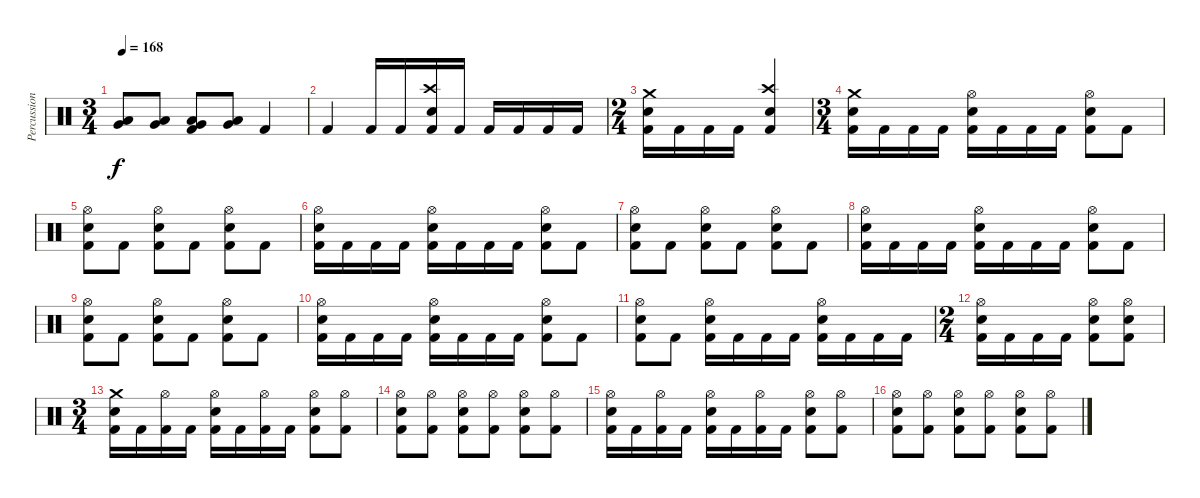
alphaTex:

\track ("Percussions" "Percussion") {instrument percussion}
\staff {score}
\articulation defaults
\ts (3 4)
\tempo 168
\clef neutral
\ks c
("Low Tom (hit)" "Very Low Tom (hit)").8{dy f} ("Low Tom (hit)" "Very Low Tom (hit)").8 ("Low Tom (hit)" "Very Low Tom (hit)" "Kick (hit) 2").8 ("Low Tom (hit)" "Very Low Tom (hit)").8 "Kick (hit) 2".4 |
"Kick (hit) 2".4 "Kick (hit) 2".16 "Kick (hit) 2".16 ("Crash high (hit)" "Snare (hit) 2" "Kick (hit) 2").16 "Kick (hit) 2".16 "Kick (hit) 2".16 "Kick (hit) 2".16 "Kick (hit) 2".16 "Kick (hit) 2".16 |
\ts (2 4)
("Crash medium (hit)" "Snare (hit) 2" "Kick (hit) 2").16 "Kick (hit) 2".16 "Kick (hit) 2".16 "Kick (hit) 2".16 ("Crash high (hit)" "Snare (hit) 2" "Kick (hit) 2").4 |
\ts (3 4)
("Crash medium (hit)" "Snare (hit) 2" "Kick (hit) 2").16 "Kick (hit) 2".16 "Kick (hit) 2".16 "Kick (hit) 2".16 ("Hi-Hat (open)" "Snare (hit) 2" "Kick (hit) 2").16 "Kick (hit) 2".16 "Kick (hit) 2".16 "Kick (hit) 2".16 ("Hi-Hat (open)" "Snare (hit) 2" "Kick (hit) 2").8 "Kick (hit) 2".8 |
("Hi-Hat (open)" "Snare (hit) 2" "Kick (hit) 2").8 "Kick (hit) 2".8 ("Hi-Hat (open)" "Snare (hit) 2" "Kick (hit) 2").8 "Kick (hit) 2".8 ("Hi-Hat (open)" "Snare (hit) 2" "Kick (hit) 2").8 "Kick (hit) 2".8 |
("Hi-Hat (open)" "Snare (hit) 2" "Kick (hit) 2").16 "Kick (hit) 2".16 "Kick (hit) 2".16 "Kick (hit) 2".16 ("Hi-Hat (open)" "Snare (hit) 2" "Kick (hit) 2").16 "Kick (hit) 2".16 "Kick (hit) 2".16 "Kick (hit) 2".16 ("Hi-Hat (open)" "Snare (hit) 2" "Kick (hit) 2").8 "Kick (hit) 2".8 |
("Hi-Hat (open)" "Snare (hit) 2" "Kick (hit) 2").8 "Kick (hit) 2".8 ("Hi-Hat (open)" "Snare (hit) 2" "Kick (hit) 2").8 "Kick (hit) 2".8 ("Hi-Hat (open)" "Snare (hit) 2" "Kick (hit) 2").8 "Kick (hit) 2".8 |
("Hi-Hat (open)" "Snare (hit) 2" "Kick (hit) 2").16 "Kick (hit) 2".16 "Kick (hit) 2".16 "Kick (hit) 2".16 ("Hi-Hat (open)" "Snare (hit) 2" "Kick (hit) 2").16 "Kick (hit) 2".16 "Kick (hit) 2".16 "Kick (hit) 2".16 ("Hi-Hat (open)" "Snare (hit) 2" "Kick (hit) 2").8 "Kick (hit) 2".8 |
("Hi-Hat (open)" "Snare (hit) 2" "Kick (hit) 2").8 "Kick (hit) 2".8 ("Hi-Hat (open)" "Snare (hit) 2" "Kick (hit) 2").8 "Kick (hit) 2".8 ("Hi-Hat (open)" "Snare (hit) 2" "Kick (hit) 2").8 "Kick (hit) 2".8 |
("Hi-Hat (open)" "Snare (hit) 2" "Kick (hit) 2").16 "Kick (hit) 2".16 "Kick (hit) 2".16 "Kick (hit) 2".16 ("Hi-Hat (open)" "Snare (hit) 2" "Kick (hit) 2").16 "Kick (hit) 2".16 "Kick (hit) 2".16 "Kick (hit) 2".16 ("Hi-Hat (open)" "Snare (hit) 2" "Kick (hit) 2").8 "Kick (hit) 2".8 |
("Hi-Hat (open)" "Snare (hit) 2" "Kick (hit) 2").8 "Kick (hit) 2".8 ("Hi-Hat (open)" "Snare (hit) 2" "Kick (hit) 2").16 "Kick (hit) 2".16 "Kick (hit) 2".16 "Kick (hit) 2".16 ("Hi-Hat (open)" "Snare (hit) 2" "Kick (hit) 2").16 "Kick (hit) 2".16 "Kick (hit) 2".16 "Kick (hit) 2".16 |
\ts (2 4)
("Hi-Hat (open)" "Snare (hit) 2" "Kick (hit) 2").16 "Kick (hit) 2".16 "Kick (hit) 2".16 "Kick (hit) 2".16 ("Hi-Hat (open)" "Snare (hit) 2" "Kick (hit) 2").8 ("Hi-Hat (open)" "Snare (hit) 2" "Kick (hit) 2").8 |
\ts (3 4)
("Crash medium (hit)" "Snare (hit) 2" "Kick (hit) 2").16 "Kick (hit) 2".16 ("Hi-Hat (open)" "Kick (hit) 2").16 "Kick (hit) 2".16 ("Hi-Hat (open)" "Snare (hit) 2" "Kick (hit) 2").16 "Kick (hit) 2".16 ("Hi-Hat (open)" "Kick (hit) 2").16 "Kick (hit) 2".16 ("Hi-Hat (open)" "Snare (hit) 2" "Kick (hit) 2").8 ("Hi-Hat (open)" "Kick (hit) 2").8 |
("Hi-Hat (open)" "Snare (hit) 2" "Kick (hit) 2").8 ("Hi-Hat (open)" "Kick (hit) 2").8 ("Hi-Hat (open)" "Snare (hit) 2" "Kick (hit) 2").8 ("Hi-Hat (open)" "Kick (hit) 2").8 ("Hi-Hat (open)" "Snare (hit) 2" "Kick (hit) 2").8 ("Hi-Hat (open)" "Kick (hit) 2").8 |
("Hi-Hat (open)" "Snare (hit) 2" "Kick (hit) 2").16 "Kick (hit) 2".16 ("Hi-Hat (open)" "Kick (hit) 2").16 "Kick (hit) 2".16 ("Hi-Hat (open)" "Snare (hit) 2" "Kick (hit) 2").16 "Kick (hit) 2".16 ("Hi-Hat (open)" "Kick (hit) 2").16 "Kick (hit) 2".16 ("Hi-Hat (open)" "Snare (hit) 2" "Kick (hit) 2").8 ("Hi-Hat (open)" "Kick (hit) 2").8 |
("Hi-Hat (open)" "Snare (hit) 2" "Kick (hit) 2").8 ("Hi-Hat (open)" "Kick (hit) 2").8 ("Hi-Hat (open)" "Snare (hit) 2" "Kick (hit) 2").8 ("Hi-Hat (open)" "Kick (hit) 2").8 ("Hi-Hat (open)" "Snare (hit) 2" "Kick (hit) 2").8 ("Hi-Hat (open)" "Kick (hit) 2").8
